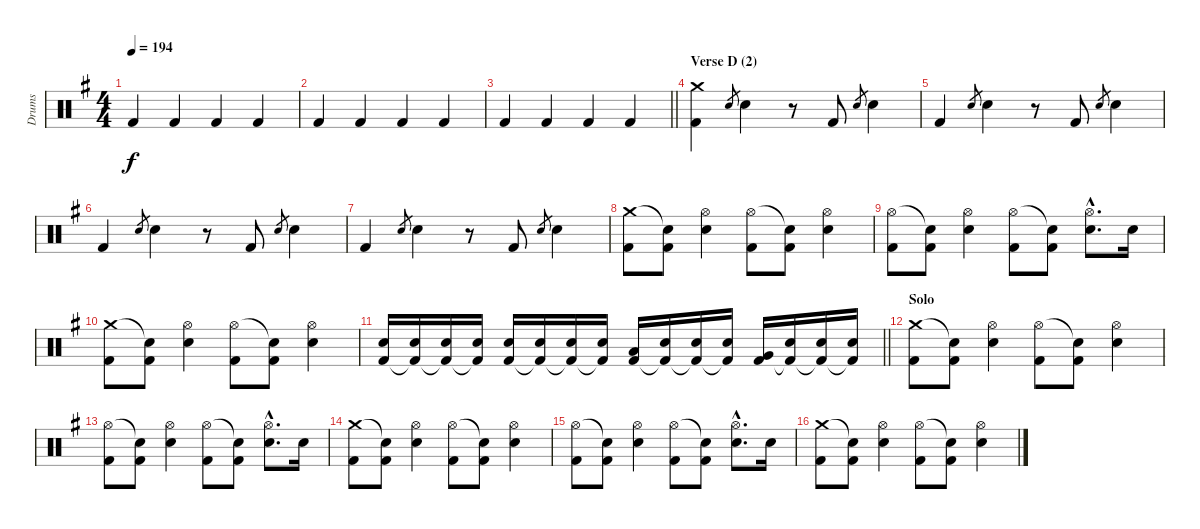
\track ("Drums" "Drums") {instrument percussion}
\staff {score}
\articulation defaults
\ts (4 4)
\tempo 194
\clef neutral
\ks eminor "Kick (hit) 2".4{dy f} "Kick (hit) 2".4 "Kick (hit) 2".4 "Kick (hit) 2".4
|
"Kick (hit) 2".4 "Kick (hit) 2".4 "Kick (hit) 2".4 "Kick (hit) 2".4 |
\barLineRight lightlight "Kick (hit) 2".4 "Kick (hit) 2".4 "Kick (hit) 2".4 "Kick (hit) 2".4
|
\section ("" "Verse D (2)")
("Crash medium (hit)" "Kick (hit) 2").4 "Electric Snare (hit)".8{gr} "Electric Snare (hit)".4 r.8 "Kick (hit) 2".8 "Electric Snare (hit)".8{gr} "Electric Snare (hit)".4 |
"Kick (hit) 2".4 "Electric Snare (hit)".8{gr} "Electric Snare (hit)".4 r.8 "Kick (hit) 2".8 "Electric Snare (hit)".8{gr} "Electric Snare (hit)".4 |
"Kick (hit) 2".4 "Electric Snare (hit)".8{gr} "Electric Snare (hit)".4 r.8 "Kick (hit) 2".8 "Electric Snare (hit)".8{gr} "Electric Snare (hit)".4 |
"Kick (hit) 2".4 "Electric Snare (hit)".8{gr} "Electric Snare (hit)".4 r.8 "Kick (hit) 2".8 "Electric Snare (hit)".8{gr} "Electric Snare (hit)".4 |
("Crash medium (hit)" "Kick (hit) 2").8 ("Snare (hit)"{t} "Kick (hit) 2").8 ("Hi-Hat (open)" "Electric Snare (hit)").4 ("Hi-Hat (open)" "Kick (hit) 2").8 ("Snare (hit)"{t} "Kick (hit) 2").8 ("Hi-Hat (open)" "Electric Snare (hit)").4 |
("Hi-Hat (open)" "Kick (hit) 2").8 ("Snare (hit)"{t} "Kick (hit) 2").8 ("Hi-Hat (open)" "Electric Snare (hit)").4 ("Hi-Hat (open)" "Kick (hit) 2").8 ("Snare (hit)"{t} "Kick (hit) 2").8 ("Hi-Hat (open)"{hac} "Electric Snare (hit)"{hac}).8{d} "Electric Snare (hit)".16 |
("Crash medium (hit)" "Kick (hit) 2").8 ("Snare (hit)"{t} "Kick (hit) 2").8 ("Hi-Hat (open)" "Electric Snare (hit)").4 ("Hi-Hat (open)" "Kick (hit) 2").8 ("Snare (hit)"{t} "Kick (hit) 2").8 ("Hi-Hat (open)" "Electric Snare (hit)").4 |
\barLineRight lightlight
("Electric Snare (hit)" "Kick (hit) 2").16 ("Electric Snare (hit)" "Kick (hit) 2"{t}).16 ("Electric Snare (hit)" "Kick (hit) 2"{t}).16 ("Electric Snare (hit)" "Kick (hit) 2"{t}).16 ("Electric Snare (hit)" "Kick (hit) 2").16 ("Electric Snare (hit)" "Kick (hit) 2"{t}).16 ("Electric Snare (hit)" "Kick (hit) 2"{t}).16 ("Electric Snare (hit)" "Kick (hit) 2"{t}).16 ("Low Tom (hit)" "Kick (hit) 2").16 ("Electric Snare (hit)" "Kick (hit) 2"{t}).16 ("Electric Snare (hit)" "Kick (hit) 2"{t}).16 ("Electric Snare (hit)" "Kick (hit) 2"{t}).16 ("Very Low Tom (hit)" "Kick (hit) 2").16 ("Electric Snare (hit)" "Kick (hit) 2"{t}).16 ("Electric Snare (hit)" "Kick (hit) 2"{t}).16 ("Electric Snare (hit)" "Kick (hit) 2"{t}).16 |
\section ("" "Solo")
("Crash medium (hit)" "Kick (hit) 2").8 ("Snare (hit)"{t} "Kick (hit) 2").8 ("Hi-Hat (open)" "Electric Snare (hit)").4 ("Hi-Hat (open)" "Kick (hit) 2").8 ("Snare (hit)"{t} "Kick (hit) 2").8 ("Hi-Hat (open)" "Electric Snare (hit)").4 |
("Hi-Hat (open)" "Kick (hit) 2").8 ("Snare (hit)"{t} "Kick (hit) 2").8 ("Hi-Hat (open)" "Electric Snare (hit)").4 ("Hi-Hat (open)" "Kick (hit) 2").8 ("Snare (hit)"{t} "Kick (hit) 2").8 ("Hi-Hat (open)"{hac} "Electric Snare (hit)"{hac}).8{d} "Electric Snare (hit)".16 |
("Crash medium (hit)" "Kick (hit) 2").8 ("Snare (hit)"{t} "Kick (hit) 2").8 ("Hi-Hat (open)" "Electric Snare (hit)").4 ("Hi-Hat (open)" "Kick (hit) 2").8 ("Snare (hit)"{t} "Kick (hit) 2").8 ("Hi-Hat (open)" "Electric Snare (hit)").4 |
("Hi-Hat (open)" "Kick (hit) 2").8 ("Snare (hit)"{t} "Kick (hit) 2").8 ("Hi-Hat (open)" "Electric Snare (hit)").4 ("Hi-Hat (open)" "Kick (hit) 2").8 ("Snare (hit)"{t} "Kick (hit) 2").8 ("Hi-Hat (open)"{hac} "Electric Snare (hit)"{hac}).8{d} "Electric Snare (hit)".16 |
("Crash medium (hit)" "Kick (hit) 2").8 ("Snare (hit)"{t} "Kick (hit) 2").8 ("Hi-Hat (open)" "Electric Snare (hit)").4 ("Hi-Hat (open)" "Kick (hit) 2").8 ("Snare (hit)"{t} "Kick (hit) 2").8 ("Hi-Hat (open)" "Electric Snare (hit)").4
